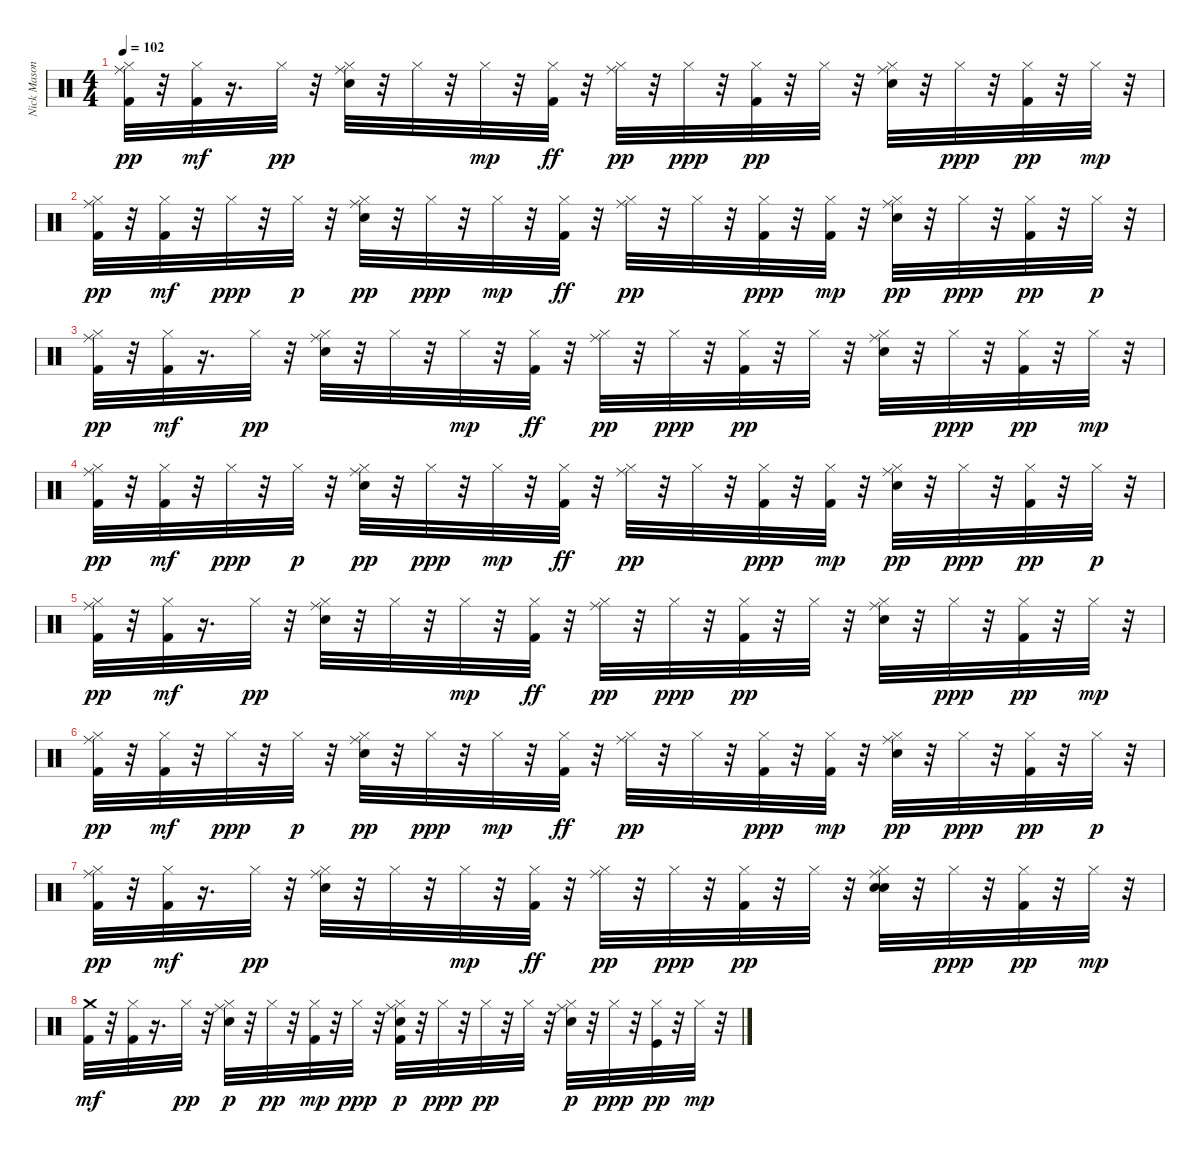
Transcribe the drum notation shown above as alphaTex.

\track ("Nick Mason / Gary Wallis" "Nick Mason") {instrument percussion}
\staff {score}
\articulation defaults
\ts (4 4)
\tempo 102
\clef neutral
\ks c
("Kick (hit) 2" "Hi-Hat (closed)" "Ride (middle)").32{dy pp} r.32 ("Hi-Hat (closed)" "Kick (hit) 2").32{dy mf} r.16{d} "Hi-Hat (closed)".32{dy pp} r.32 ("Snare (hit) 2" "Hi-Hat (closed)" "Ride (middle)").32 r.32 "Hi-Hat (closed)".32 r.32 "Hi-Hat (closed)".32{dy mp} r.32 ("Hi-Hat (closed)" "Kick (hit) 2").32{dy ff} r.32 ("Hi-Hat (closed)" "Ride (middle)").32{dy pp} r.32 "Hi-Hat (closed)".32{dy ppp} r.32 ("Hi-Hat (closed)" "Kick (hit) 2").32{dy pp} r.32 "Hi-Hat (closed)".32 r.32 ("Snare (hit) 2" "Hi-Hat (closed)" "Ride (middle)").32 r.32 "Hi-Hat (closed)".32{dy ppp} r.32 ("Kick (hit) 2" "Hi-Hat (closed)").32{dy pp} r.32 "Hi-Hat (closed)".32{dy mp} r.32 |
("Kick (hit) 2" "Hi-Hat (closed)" "Ride (middle)").32{dy pp} r.32 ("Hi-Hat (closed)" "Kick (hit) 2").32{dy mf} r.32 "Hi-Hat (closed)".32{dy ppp} r.32 "Hi-Hat (closed)".32{dy p} r.32 ("Snare (hit) 2" "Hi-Hat (closed)" "Ride (middle)").32{dy pp} r.32 "Hi-Hat (closed)".32{dy ppp} r.32 "Hi-Hat (closed)".32{dy mp} r.32 ("Hi-Hat (closed)" "Kick (hit) 2").32{dy ff} r.32 ("Hi-Hat (closed)" "Ride (middle)").32{dy pp} r.32 "Hi-Hat (closed)".32 r.32 ("Hi-Hat (closed)" "Kick (hit) 2").32{dy ppp} r.32 ("Hi-Hat (closed)" "Kick (hit) 2").32{dy mp} r.32 ("Snare (hit) 2" "Hi-Hat (closed)" "Ride (middle)").32{dy pp} r.32 "Hi-Hat (closed)".32{dy ppp} r.32 ("Kick (hit) 2" "Hi-Hat (closed)").32{dy pp} r.32 "Hi-Hat (closed)".32{dy p} r.32 |
("Kick (hit) 2" "Hi-Hat (closed)" "Ride (middle)").32{dy pp} r.32 ("Hi-Hat (closed)" "Kick (hit) 2").32{dy mf} r.16{d} "Hi-Hat (closed)".32{dy pp} r.32 ("Snare (hit) 2" "Hi-Hat (closed)" "Ride (middle)").32 r.32 "Hi-Hat (closed)".32 r.32 "Hi-Hat (closed)".32{dy mp} r.32 ("Hi-Hat (closed)" "Kick (hit) 2").32{dy ff} r.32 ("Hi-Hat (closed)" "Ride (middle)").32{dy pp} r.32 "Hi-Hat (closed)".32{dy ppp} r.32 ("Hi-Hat (closed)" "Kick (hit) 2").32{dy pp} r.32 "Hi-Hat (closed)".32 r.32 ("Snare (hit) 2" "Hi-Hat (closed)" "Ride (middle)").32 r.32 "Hi-Hat (closed)".32{dy ppp} r.32 ("Kick (hit) 2" "Hi-Hat (closed)").32{dy pp} r.32 "Hi-Hat (closed)".32{dy mp} r.32 |
("Kick (hit) 2" "Hi-Hat (closed)" "Ride (middle)").32{dy pp} r.32 ("Hi-Hat (closed)" "Kick (hit) 2").32{dy mf} r.32 "Hi-Hat (closed)".32{dy ppp} r.32 "Hi-Hat (closed)".32{dy p} r.32 ("Snare (hit) 2" "Hi-Hat (closed)" "Ride (middle)").32{dy pp} r.32 "Hi-Hat (closed)".32{dy ppp} r.32 "Hi-Hat (closed)".32{dy mp} r.32 ("Hi-Hat (closed)" "Kick (hit) 2").32{dy ff} r.32 ("Hi-Hat (closed)" "Ride (middle)").32{dy pp} r.32 "Hi-Hat (closed)".32 r.32 ("Hi-Hat (closed)" "Kick (hit) 2").32{dy ppp} r.32 ("Hi-Hat (closed)" "Kick (hit) 2").32{dy mp} r.32 ("Snare (hit) 2" "Hi-Hat (closed)" "Ride (middle)").32{dy pp} r.32 "Hi-Hat (closed)".32{dy ppp} r.32 ("Kick (hit) 2" "Hi-Hat (closed)").32{dy pp} r.32 "Hi-Hat (closed)".32{dy p} r.32 |
("Kick (hit) 2" "Hi-Hat (closed)" "Ride (middle)").32{dy pp} r.32 ("Hi-Hat (closed)" "Kick (hit) 2").32{dy mf} r.16{d} "Hi-Hat (closed)".32{dy pp} r.32 ("Snare (hit) 2" "Hi-Hat (closed)" "Ride (middle)").32 r.32 "Hi-Hat (closed)".32 r.32 "Hi-Hat (closed)".32{dy mp} r.32 ("Hi-Hat (closed)" "Kick (hit) 2").32{dy ff} r.32 ("Hi-Hat (closed)" "Ride (middle)").32{dy pp} r.32 "Hi-Hat (closed)".32{dy ppp} r.32 ("Hi-Hat (closed)" "Kick (hit) 2").32{dy pp} r.32 "Hi-Hat (closed)".32 r.32 ("Snare (hit) 2" "Hi-Hat (closed)" "Ride (middle)").32 r.32 "Hi-Hat (closed)".32{dy ppp} r.32 ("Kick (hit) 2" "Hi-Hat (closed)").32{dy pp} r.32 "Hi-Hat (closed)".32{dy mp} r.32 |
("Kick (hit) 2" "Hi-Hat (closed)" "Ride (middle)").32{dy pp} r.32 ("Hi-Hat (closed)" "Kick (hit) 2").32{dy mf} r.32 "Hi-Hat (closed)".32{dy ppp} r.32 "Hi-Hat (closed)".32{dy p} r.32 ("Snare (hit) 2" "Hi-Hat (closed)" "Ride (middle)").32{dy pp} r.32 "Hi-Hat (closed)".32{dy ppp} r.32 "Hi-Hat (closed)".32{dy mp} r.32 ("Hi-Hat (closed)" "Kick (hit) 2").32{dy ff} r.32 ("Hi-Hat (closed)" "Ride (middle)").32{dy pp} r.32 "Hi-Hat (closed)".32 r.32 ("Hi-Hat (closed)" "Kick (hit) 2").32{dy ppp} r.32 ("Hi-Hat (closed)" "Kick (hit) 2").32{dy mp} r.32 ("Snare (hit) 2" "Hi-Hat (closed)" "Ride (middle)").32{dy pp} r.32 "Hi-Hat (closed)".32{dy ppp} r.32 ("Kick (hit) 2" "Hi-Hat (closed)").32{dy pp} r.32 "Hi-Hat (closed)".32{dy p} r.32 |
("Kick (hit) 2" "Hi-Hat (closed)" "Ride (middle)").32{dy pp} r.32 ("Hi-Hat (closed)" "Kick (hit) 2").32{dy mf} r.16{d} "Hi-Hat (closed)".32{dy pp} r.32 ("Snare (hit) 2" "Hi-Hat (closed)" "Ride (middle)").32 r.32 "Hi-Hat (closed)".32 r.32 "Hi-Hat (closed)".32{dy mp} r.32 ("Hi-Hat (closed)" "Kick (hit) 2").32{dy ff} r.32 ("Hi-Hat (closed)" "Ride (middle)").32{dy pp} r.32 "Hi-Hat (closed)".32{dy ppp} r.32 ("Hi-Hat (closed)" "Kick (hit) 2").32{dy pp} r.32 "Hi-Hat (closed)".32 r.32 ("Snare (hit) 2" "Electric Snare (hit)" "Hi-Hat (closed)" "Ride (middle)").32 r.32 "Hi-Hat (closed)".32{dy ppp} r.32 ("Kick (hit) 2" "Hi-Hat (closed)").32{dy pp} r.32 "Hi-Hat (closed)".32{dy mp} r.32 |
("Kick (hit) 2" "Crash medium (hit)").32{dy mf} r.32 ("Hi-Hat (closed)" "Kick (hit) 2").32 r.16{d} "Hi-Hat (closed)".32{dy pp} r.32 ("Snare (hit) 2" "Hi-Hat (closed)" "Ride (middle)").32{dy p} r.32 "Hi-Hat (closed)".32{dy pp} r.32 ("Kick (hit) 2" "Hi-Hat (closed)").32{dy mp} r.32 "Hi-Hat (closed)".32{dy ppp} r.32 ("Kick (hit) 2" "Electric Snare (hit)" "Hi-Hat (closed)" "Ride (middle)").32{dy p} r.32 "Hi-Hat (closed)".32{dy ppp} r.32 "Hi-Hat (closed)".32{dy pp} r.32 "Hi-Hat (closed)".32 r.32 ("Snare (hit) 2" "Hi-Hat (closed)" "Ride (middle)").32{dy p} r.32 "Hi-Hat (closed)".32{dy ppp} r.32 ("Kick (hit)" "Hi-Hat (closed)").32{dy pp} r.32 "Hi-Hat (closed)".32{dy mp} r.32
